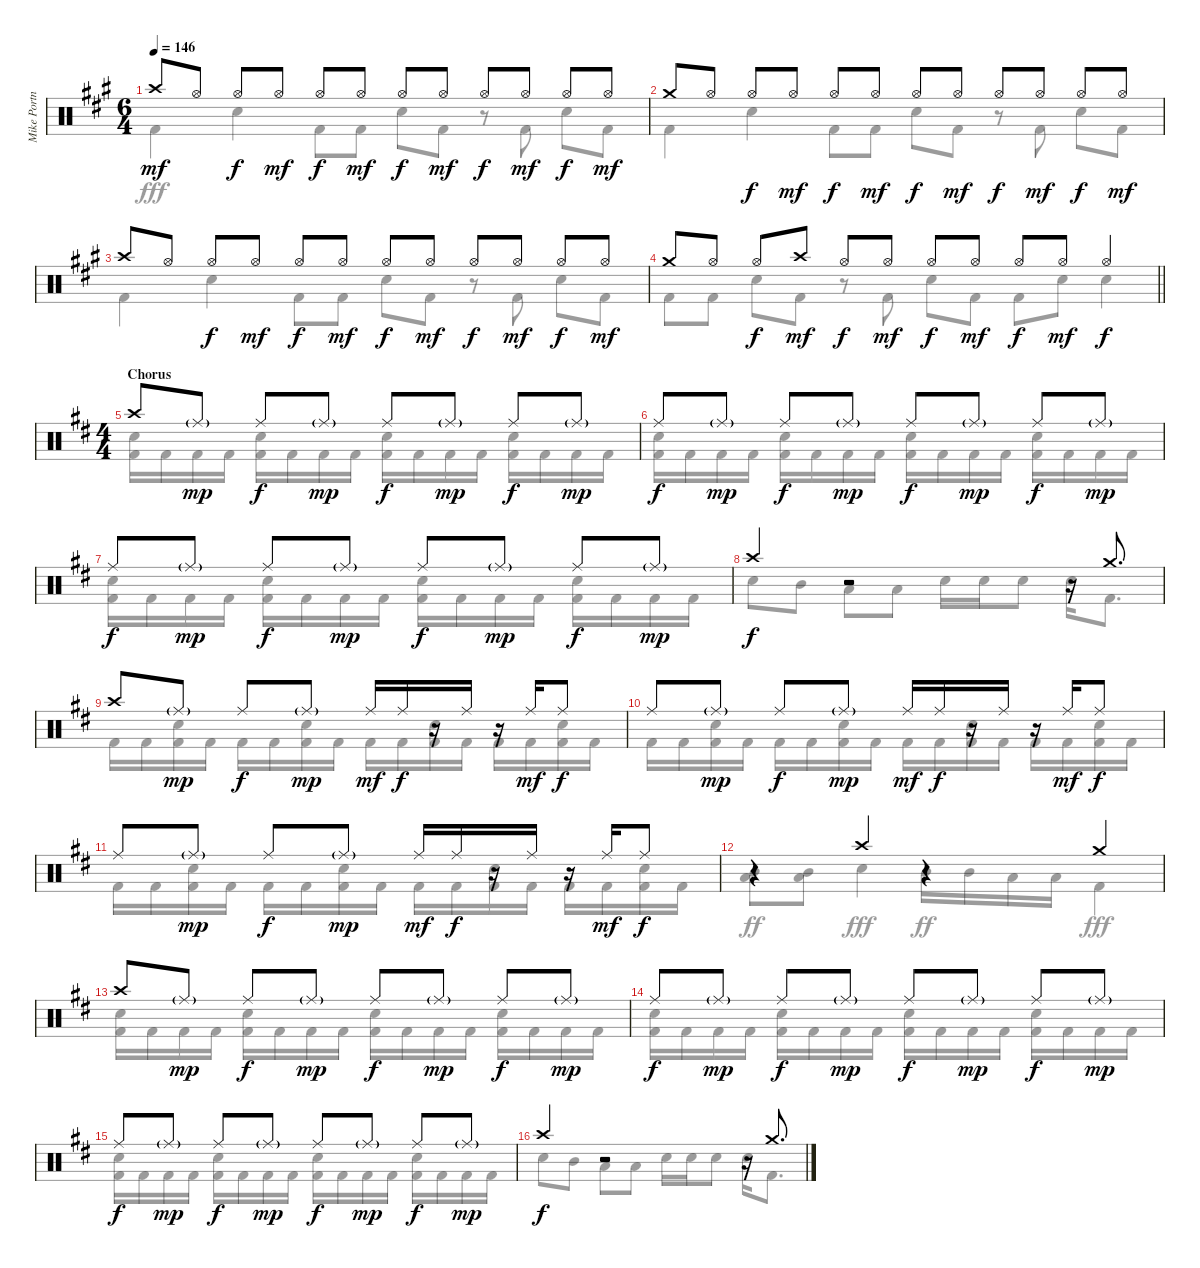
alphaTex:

\track ("Mike Portnoy Drums" "Mike Portn") {instrument percussion}
\staff {score}
\articulation defaults
\voice
\ts (6 4)
\tempo 146
\clef neutral
\ks f#minor "Crash high (hit)".8{dy mf} "Hi-Hat (open)".8 "Hi-Hat (open)".8{dy f} "Hi-Hat (open)".8{dy mf} "Hi-Hat (open)".8{dy f} "Hi-Hat (open)".8{dy mf} "Hi-Hat (open)".8{dy f} "Hi-Hat (open)".8{dy mf} "Hi-Hat (open)".8{dy f} "Hi-Hat (open)".8{dy mf} "Hi-Hat (open)".8{dy f} "Hi-Hat (open)".8{dy mf}
|
"Crash medium (hit)".8 "Hi-Hat (open)".8 "Hi-Hat (open)".8{dy f} "Hi-Hat (open)".8{dy mf} "Hi-Hat (open)".8{dy f} "Hi-Hat (open)".8{dy mf} "Hi-Hat (open)".8{dy f} "Hi-Hat (open)".8{dy mf} "Hi-Hat (open)".8{dy f} "Hi-Hat (open)".8{dy mf} "Hi-Hat (open)".8{dy f} "Hi-Hat (open)".8{dy mf} |
"Crash high (hit)".8 "Hi-Hat (open)".8 "Hi-Hat (open)".8{dy f} "Hi-Hat (open)".8{dy mf} "Hi-Hat (open)".8{dy f} "Hi-Hat (open)".8{dy mf} "Hi-Hat (open)".8{dy f} "Hi-Hat (open)".8{dy mf} "Hi-Hat (open)".8{dy f} "Hi-Hat (open)".8{dy mf} "Hi-Hat (open)".8{dy f} "Hi-Hat (open)".8{dy mf} |
\barLineRight lightlight "Crash medium (hit)".8 "Hi-Hat (open)".8 "Hi-Hat (open)".8{dy f} "Crash high (hit)".8{dy mf} "Hi-Hat (open)".8{dy f} "Hi-Hat (open)".8{dy mf} "Hi-Hat (open)".8{dy f} "Hi-Hat (open)".8{dy mf} "Hi-Hat (open)".8{dy f} "Hi-Hat (open)".8{dy mf} "Hi-Hat (open)".4{dy f}
|
\ts (4 4)
\section ("" "Chorus")
\ks bminor "Crash high (hit)".8 "Ride (middle)"{g}.8{dy mp} "Ride (middle)".8{dy f} "Ride (middle)"{g}.8{dy mp} "Ride (middle)".8{dy f} "Ride (middle)"{g}.8{dy mp} "Ride (middle)".8{dy f} "Ride (middle)"{g}.8{dy mp}
|
"Ride (middle)".8{dy f} "Ride (middle)"{g}.8{dy mp} "Ride (middle)".8{dy f} "Ride (middle)"{g}.8{dy mp} "Ride (middle)".8{dy f} "Ride (middle)"{g}.8{dy mp} "Ride (middle)".8{dy f} "Ride (middle)"{g}.8{dy mp} |
"Ride (middle)".8{dy f} "Ride (middle)"{g}.8{dy mp} "Ride (middle)".8{dy f} "Ride (middle)"{g}.8{dy mp} "Ride (middle)".8{dy f} "Ride (middle)"{g}.8{dy mp} "Ride (middle)".8{dy f} "Ride (middle)"{g}.8{dy mp} |
"Crash high (hit)".4{dy f} r.2 r.16 "Crash medium (hit)".8{d} |
"Crash high (hit)".8 "Ride (middle)"{g}.8{dy mp} "Ride (middle)".8{dy f} "Ride (middle)"{g}.8{dy mp} "Ride (middle)".16{dy mf} "Ride (middle)".16{dy f} r.16 "Ride (middle)".16 r.16 "Ride (middle)".16{dy mf} "Ride (middle)".8{dy f} |
"Ride (middle)".8 "Ride (middle)"{g}.8{dy mp} "Ride (middle)".8{dy f} "Ride (middle)"{g}.8{dy mp} "Ride (middle)".16{dy mf} "Ride (middle)".16{dy f} r.16 "Ride (middle)".16 r.16 "Ride (middle)".16{dy mf} "Ride (middle)".8{dy f} |
"Ride (middle)".8 "Ride (middle)"{g}.8{dy mp} "Ride (middle)".8{dy f} "Ride (middle)"{g}.8{dy mp} "Ride (middle)".16{dy mf} "Ride (middle)".16{dy f} r.16 "Ride (middle)".16 r.16 "Ride (middle)".16{dy mf} "Ride (middle)".8{dy f} |
r.4 "Crash high (hit)".4 r.4 "Crash medium (hit)".4 |
"Crash high (hit)".8 "Ride (middle)"{g}.8{dy mp} "Ride (middle)".8{dy f} "Ride (middle)"{g}.8{dy mp} "Ride (middle)".8{dy f} "Ride (middle)"{g}.8{dy mp} "Ride (middle)".8{dy f} "Ride (middle)"{g}.8{dy mp} |
"Ride (middle)".8{dy f} "Ride (middle)"{g}.8{dy mp} "Ride (middle)".8{dy f} "Ride (middle)"{g}.8{dy mp} "Ride (middle)".8{dy f} "Ride (middle)"{g}.8{dy mp} "Ride (middle)".8{dy f} "Ride (middle)"{g}.8{dy mp} |
"Ride (middle)".8{dy f} "Ride (middle)"{g}.8{dy mp} "Ride (middle)".8{dy f} "Ride (middle)"{g}.8{dy mp} "Ride (middle)".8{dy f} "Ride (middle)"{g}.8{dy mp} "Ride (middle)".8{dy f} "Ride (middle)"{g}.8{dy mp} |
"Crash high (hit)".4{dy f} r.2 r.16 "Crash medium (hit)".8{d}
\voice
\clef neutral
\ottava regular
\simile none
\ks f#minor "Kick (hit) 2".4{dy fff} "Snare (hit) 2".4 "Kick (hit) 2".8 "Kick (hit) 2".8 "Snare (hit) 2".8 "Kick (hit) 2".8
r.8 "Kick (hit) 2".8 "Snare (hit) 2".8 "Kick (hit) 2".8 |
"Kick (hit) 2".4 "Snare (hit) 2".4 "Kick (hit) 2".8 "Kick (hit) 2".8 "Snare (hit) 2".8 "Kick (hit) 2".8 r.8 "Kick (hit) 2".8 "Snare (hit) 2".8 "Kick (hit) 2".8 |
"Kick (hit) 2".4 "Snare (hit) 2".4 "Kick (hit) 2".8 "Kick (hit) 2".8 "Snare (hit) 2".8 "Kick (hit) 2".8 r.8 "Kick (hit) 2".8 "Snare (hit) 2".8 "Kick (hit) 2".8 |
\barLineRight lightlight "Kick (hit) 2".8 "Kick (hit) 2".8 "Snare (hit) 2".8 "Kick (hit) 2".8
r.8 "Kick (hit) 2".8 "Snare (hit) 2".8 "Kick (hit) 2".8 "Kick (hit) 2".8 "Snare (hit) 2".8 "Snare (hit) 2".4 |
\ks bminor
("Snare (hit) 2" "Kick (hit) 2").16 "Kick (hit) 2".16 "Kick (hit) 2".16 "Kick (hit) 2".16 ("Snare (hit) 2" "Kick (hit) 2").16 "Kick (hit) 2".16 "Kick (hit) 2".16 "Kick (hit) 2".16 ("Snare (hit) 2" "Kick (hit) 2").16 "Kick (hit) 2".16 "Kick (hit) 2".16 "Kick (hit) 2".16 ("Snare (hit) 2" "Kick (hit) 2").16 "Kick (hit) 2".16 "Kick (hit) 2".16 "Kick (hit) 2".16 |
("Snare (hit) 2" "Kick (hit) 2").16 "Kick (hit) 2".16 "Kick (hit) 2".16 "Kick (hit) 2".16 ("Snare (hit) 2" "Kick (hit) 2").16 "Kick (hit) 2".16 "Kick (hit) 2".16 "Kick (hit) 2".16 ("Snare (hit) 2" "Kick (hit) 2").16 "Kick (hit) 2".16 "Kick (hit) 2".16 "Kick (hit) 2".16 ("Snare (hit) 2" "Kick (hit) 2").16 "Kick (hit) 2".16 "Kick (hit) 2".16 "Kick (hit) 2".16 |
("Snare (hit) 2" "Kick (hit) 2").16 "Kick (hit) 2".16 "Kick (hit) 2".16 "Kick (hit) 2".16 ("Snare (hit) 2" "Kick (hit) 2").16 "Kick (hit) 2".16 "Kick (hit) 2".16 "Kick (hit) 2".16 ("Snare (hit) 2" "Kick (hit) 2").16 "Kick (hit) 2".16 "Kick (hit) 2".16 "Kick (hit) 2".16 ("Snare (hit) 2" "Kick (hit) 2").16 "Kick (hit) 2".16 "Kick (hit) 2".16 "Kick (hit) 2".16 |
"Snare (hit) 2".8 "Mid Tom (hit)".8 "Low Tom (hit)".8 "Low Tom (hit)".8 "Snare (hit) 2".16 "Snare (hit) 2".16 "Snare (hit) 2".8 "Snare (hit) 2".16 "Kick (hit) 2".8{d} |
"Kick (hit) 2".16 "Kick (hit) 2".16 ("Snare (hit) 2" "Kick (hit) 2").16 "Kick (hit) 2".16 "Kick (hit) 2".16 "Kick (hit) 2".16 ("Snare (hit) 2" "Kick (hit) 2").16 "Kick (hit) 2".16 "Kick (hit) 2".16 "Kick (hit) 2".16 ("Snare (hit) 2" "Kick (hit) 2").16 "Kick (hit) 2".16 "Kick (hit) 2".16 "Kick (hit) 2".16 ("Snare (hit) 2" "Kick (hit) 2").16 "Kick (hit) 2".16 |
"Kick (hit) 2".16 "Kick (hit) 2".16 ("Snare (hit) 2" "Kick (hit) 2").16 "Kick (hit) 2".16 "Kick (hit) 2".16 "Kick (hit) 2".16 ("Snare (hit) 2" "Kick (hit) 2").16 "Kick (hit) 2".16 "Kick (hit) 2".16 "Kick (hit) 2".16 ("Snare (hit) 2" "Kick (hit) 2").16 "Kick (hit) 2".16 "Kick (hit) 2".16 "Kick (hit) 2".16 ("Snare (hit) 2" "Kick (hit) 2").16 "Kick (hit) 2".16 |
"Kick (hit) 2".16 "Kick (hit) 2".16 ("Snare (hit) 2" "Kick (hit) 2").16 "Kick (hit) 2".16 "Kick (hit) 2".16 "Kick (hit) 2".16 ("Snare (hit) 2" "Kick (hit) 2").16 "Kick (hit) 2".16 "Kick (hit) 2".16 "Kick (hit) 2".16 ("Snare (hit) 2" "Kick (hit) 2").16 "Kick (hit) 2".16 "Kick (hit) 2".16 "Kick (hit) 2".16 ("Snare (hit) 2" "Kick (hit) 2").16 "Kick (hit) 2".16 |
("Mid Tom (hit)" "Low Tom (hit)").8{dy ff} ("Mid Tom (hit)" "Low Tom (hit)").8 "Snare (hit) 2".4{dy fff} "Mid Tom (hit)".16{dy ff} "Mid Tom (hit)".16 "Low Tom (hit)".16 "Low Tom (hit)".16 "Kick (hit) 2".4{dy fff} |
("Snare (hit) 2" "Kick (hit) 2").16 "Kick (hit) 2".16 "Kick (hit) 2".16 "Kick (hit) 2".16 ("Snare (hit) 2" "Kick (hit) 2").16 "Kick (hit) 2".16 "Kick (hit) 2".16 "Kick (hit) 2".16 ("Snare (hit) 2" "Kick (hit) 2").16 "Kick (hit) 2".16 "Kick (hit) 2".16 "Kick (hit) 2".16 ("Snare (hit) 2" "Kick (hit) 2").16 "Kick (hit) 2".16 "Kick (hit) 2".16 "Kick (hit) 2".16 |
("Snare (hit) 2" "Kick (hit) 2").16 "Kick (hit) 2".16 "Kick (hit) 2".16 "Kick (hit) 2".16 ("Snare (hit) 2" "Kick (hit) 2").16 "Kick (hit) 2".16 "Kick (hit) 2".16 "Kick (hit) 2".16 ("Snare (hit) 2" "Kick (hit) 2").16 "Kick (hit) 2".16 "Kick (hit) 2".16 "Kick (hit) 2".16 ("Snare (hit) 2" "Kick (hit) 2").16 "Kick (hit) 2".16 "Kick (hit) 2".16 "Kick (hit) 2".16 |
("Snare (hit) 2" "Kick (hit) 2").16 "Kick (hit) 2".16 "Kick (hit) 2".16 "Kick (hit) 2".16 ("Snare (hit) 2" "Kick (hit) 2").16 "Kick (hit) 2".16 "Kick (hit) 2".16 "Kick (hit) 2".16 ("Snare (hit) 2" "Kick (hit) 2").16 "Kick (hit) 2".16 "Kick (hit) 2".16 "Kick (hit) 2".16 ("Snare (hit) 2" "Kick (hit) 2").16 "Kick (hit) 2".16 "Kick (hit) 2".16 "Kick (hit) 2".16 |
"Snare (hit) 2".8 "Mid Tom (hit)".8 "Low Tom (hit)".8 "Low Tom (hit)".8 "Snare (hit) 2".16 "Snare (hit) 2".16 "Snare (hit) 2".8 "Snare (hit) 2".16 "Kick (hit) 2".8{d}
